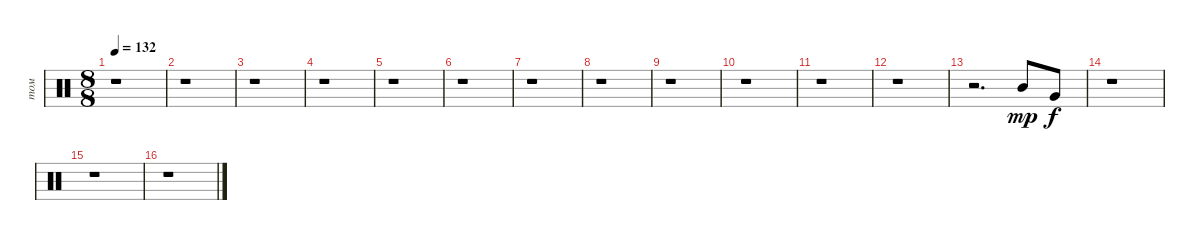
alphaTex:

\track ("том" "том") {instrument percussion}
\staff {score}
\articulation defaults
\ts (8 8)
\tempo 132
\clef neutral
\ks c
r.1{dy mp} |
r.1 |
r.1 |
r.1 |
r.1 |
r.1 |
r.1 |
r.1 |
r.1 |
r.1 |
r.1 |
r.1 |
r.2{d} "Mid Tom (hit)".8 "Very Low Tom (hit)".8{dy f} |
r.1 |
r.1 |
r.1
